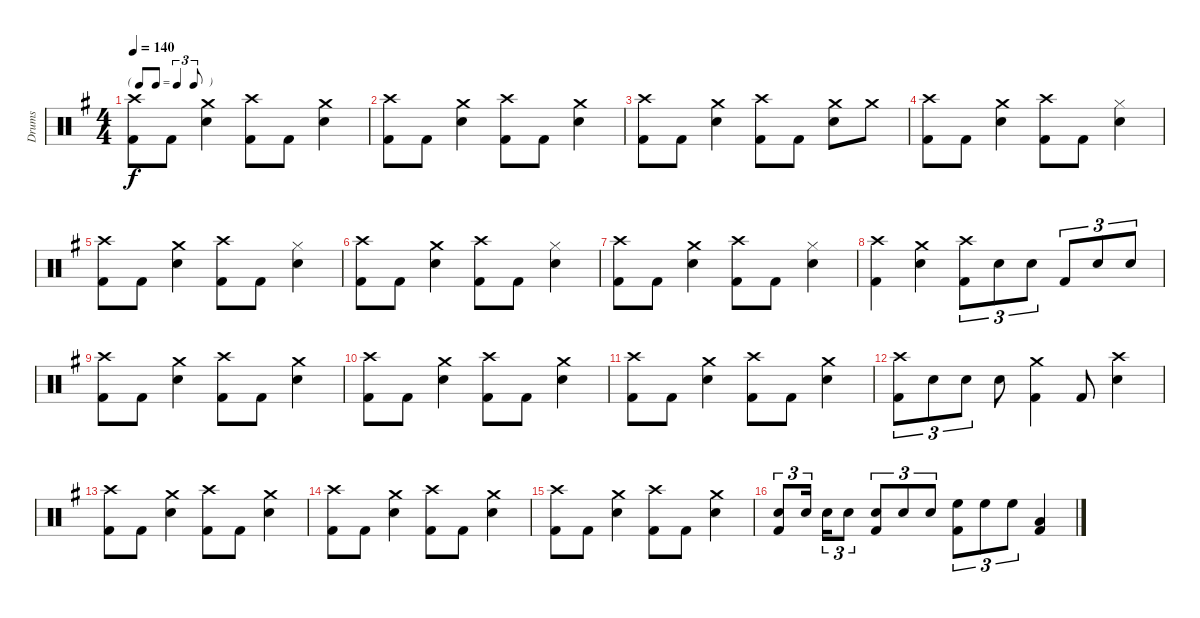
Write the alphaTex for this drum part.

\track ("Drums" "Drums") {instrument percussion}
\staff {score}
\articulation defaults
\ts (4 4)
\tf triplet8th
\tempo 140
\clef neutral
\ks eminor
("Kick (hit) 2" "Crash high (hit)").8{dy f} "Kick (hit) 2".8 ("Snare (hit) 2" "Crash medium (hit)").4 ("Kick (hit) 2" "Crash high (hit)").8 "Kick (hit) 2".8 ("Snare (hit) 2" "Crash medium (hit)").4 |
("Kick (hit) 2" "Crash high (hit)").8 "Kick (hit) 2".8 ("Snare (hit) 2" "Crash medium (hit)").4 ("Kick (hit) 2" "Crash high (hit)").8 "Kick (hit) 2".8 ("Snare (hit) 2" "Crash medium (hit)").4 |
("Kick (hit) 2" "Crash high (hit)").8 "Kick (hit) 2".8 ("Snare (hit) 2" "Crash medium (hit)").4 ("Kick (hit) 2" "Crash high (hit)").8 "Kick (hit) 2".8 ("Snare (hit) 2" "Crash medium (hit)").8 "Crash medium (hit)".8 |
("Kick (hit) 2" "Crash high (hit)").8 "Kick (hit) 2".8 ("Snare (hit) 2" "Crash medium (hit)").4 ("Kick (hit) 2" "Crash high (hit)").8 "Kick (hit) 2".8 ("Snare (hit) 2" "Hi-Hat (closed)").4 |
("Kick (hit) 2" "Crash high (hit)").8 "Kick (hit) 2".8 ("Snare (hit) 2" "Crash medium (hit)").4 ("Kick (hit) 2" "Crash high (hit)").8 "Kick (hit) 2".8 ("Snare (hit) 2" "Hi-Hat (closed)").4 |
("Kick (hit) 2" "Crash high (hit)").8 "Kick (hit) 2".8 ("Snare (hit) 2" "Crash medium (hit)").4 ("Kick (hit) 2" "Crash high (hit)").8 "Kick (hit) 2".8 ("Snare (hit) 2" "Hi-Hat (closed)").4 |
("Kick (hit) 2" "Crash high (hit)").8 "Kick (hit) 2".8 ("Snare (hit) 2" "Crash medium (hit)").4 ("Kick (hit) 2" "Crash high (hit)").8 "Kick (hit) 2".8 ("Snare (hit) 2" "Hi-Hat (closed)").4 |
("Kick (hit) 2" "Crash high (hit)").4 ("Snare (hit) 2" "Crash medium (hit)").4 ("Kick (hit) 2" "Crash high (hit)").8{tu (3 2)} "Snare (hit) 2".8{tu (3 2)} "Snare (hit) 2".8{tu (3 2)} "Kick (hit) 2".8{tu (3 2)} "Snare (hit) 2".8{tu (3 2)} "Snare (hit) 2".8{tu (3 2)} |
("Kick (hit) 2" "Crash high (hit)").8 "Kick (hit) 2".8 ("Snare (hit) 2" "Crash medium (hit)").4 ("Kick (hit) 2" "Crash high (hit)").8 "Kick (hit) 2".8 ("Snare (hit) 2" "Crash medium (hit)").4 |
("Kick (hit) 2" "Crash high (hit)").8 "Kick (hit) 2".8 ("Snare (hit) 2" "Crash medium (hit)").4 ("Kick (hit) 2" "Crash high (hit)").8 "Kick (hit) 2".8 ("Snare (hit) 2" "Crash medium (hit)").4 |
("Kick (hit) 2" "Crash high (hit)").8 "Kick (hit) 2".8 ("Snare (hit) 2" "Crash medium (hit)").4 ("Kick (hit) 2" "Crash high (hit)").8 "Kick (hit) 2".8 ("Snare (hit) 2" "Crash medium (hit)").4 |
("Kick (hit) 2" "Crash high (hit)").8{tu (3 2)} "Snare (hit) 2".8{tu (3 2)} "Snare (hit) 2".8{tu (3 2)} "Snare (hit) 2".8 ("Kick (hit) 2" "Crash medium (hit)").4 "Kick (hit) 2".8 ("Snare (hit) 2" "Crash high (hit)").4 |
("Kick (hit) 2" "Crash high (hit)").8 "Kick (hit) 2".8 ("Snare (hit) 2" "Crash medium (hit)").4 ("Kick (hit) 2" "Crash high (hit)").8 "Kick (hit) 2".8 ("Snare (hit) 2" "Crash medium (hit)").4 |
("Kick (hit) 2" "Crash high (hit)").8 "Kick (hit) 2".8 ("Snare (hit) 2" "Crash medium (hit)").4 ("Kick (hit) 2" "Crash high (hit)").8 "Kick (hit) 2".8 ("Snare (hit) 2" "Crash medium (hit)").4 |
("Kick (hit) 2" "Crash high (hit)").8 "Kick (hit) 2".8 ("Snare (hit) 2" "Crash medium (hit)").4 ("Kick (hit) 2" "Crash high (hit)").8 "Kick (hit) 2".8 ("Snare (hit) 2" "Crash medium (hit)").4 |
("Kick (hit) 2" "Snare (hit) 2").8{tu (3 2)} "Snare (hit) 2".16{tu (3 2)} "Snare (hit) 2".16{tu (3 2)} "Snare (hit) 2".8{tu (3 2)} ("Kick (hit) 2" "Snare (hit) 2").8{tu (3 2)} "Snare (hit) 2".8{tu (3 2)} "Snare (hit) 2".8{tu (3 2)} ("Kick (hit) 2" "High Floor Tom (hit)").8{tu (3 2)} "High Floor Tom (hit)".8{tu (3 2)} "High Floor Tom (hit)".8{tu (3 2)} ("Kick (hit) 2" "Low Tom (hit)").4
